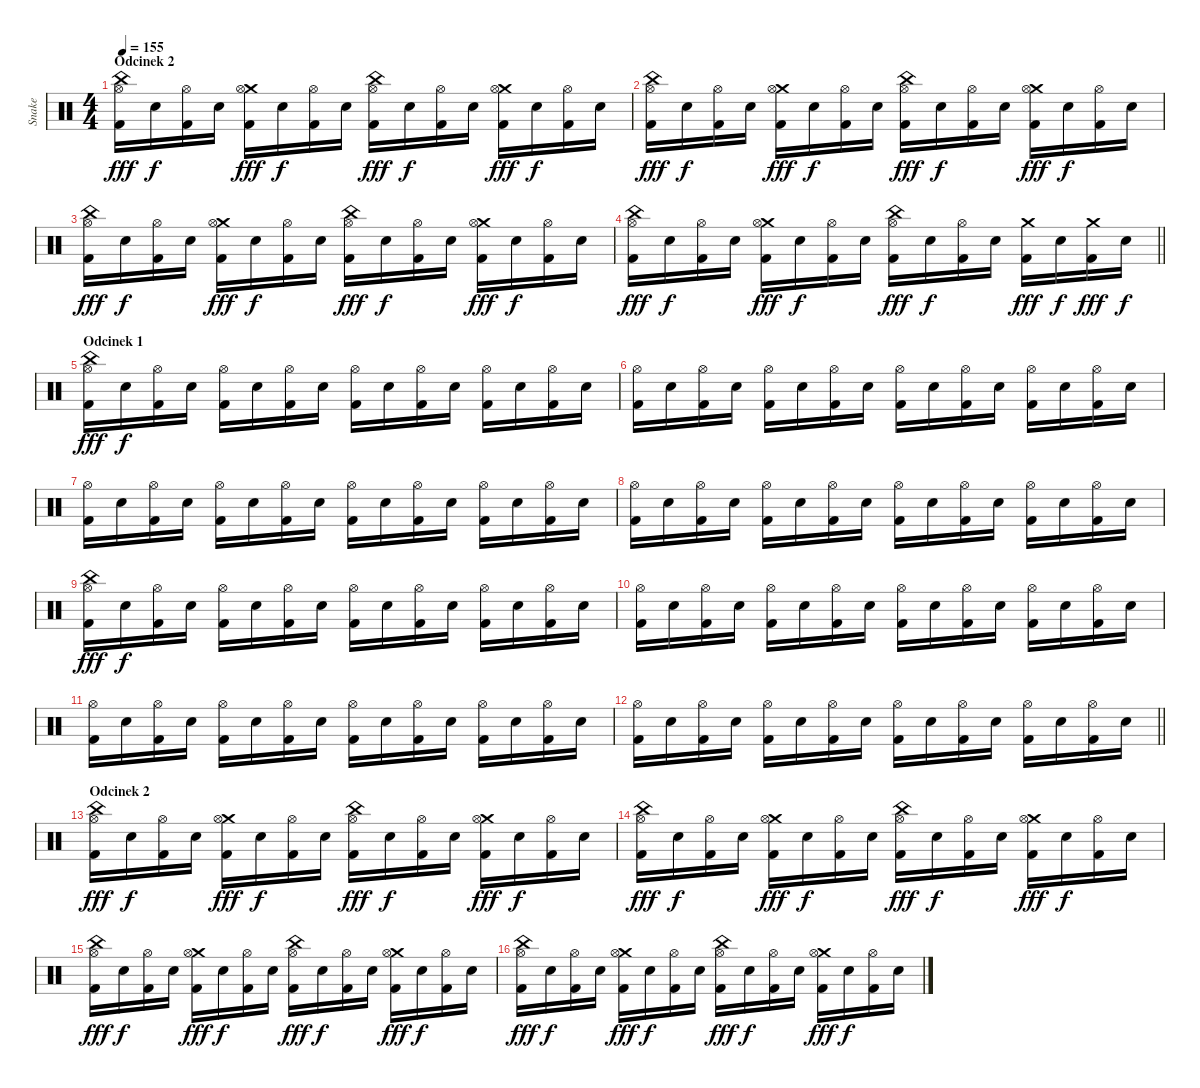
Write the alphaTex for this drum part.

\track ("Snake" "Snake") {instrument percussion}
\staff {score}
\articulation defaults
\ts (4 4)
\section ("" "Odcinek 2")
\tempo 155
\clef neutral
\ks c
("China (hit)" "Hi-Hat (open)" "Kick (hit) 2").16{dy fff} "Snare (hit) 2".16{dy f} ("Hi-Hat (open)" "Kick (hit) 2").16 "Snare (hit) 2".16 ("Crash medium (hit)" "Hi-Hat (open)" "Kick (hit) 2").16{dy fff} "Snare (hit) 2".16{dy f} ("Hi-Hat (open)" "Kick (hit) 2").16 "Snare (hit) 2".16 ("China (hit)" "Hi-Hat (open)" "Kick (hit) 2").16{dy fff} "Snare (hit) 2".16{dy f} ("Hi-Hat (open)" "Kick (hit) 2").16 "Snare (hit) 2".16 ("Crash medium (hit)" "Hi-Hat (open)" "Kick (hit) 2").16{dy fff} "Snare (hit) 2".16{dy f} ("Hi-Hat (open)" "Kick (hit) 2").16 "Snare (hit) 2".16 |
("China (hit)" "Hi-Hat (open)" "Kick (hit) 2").16{dy fff} "Snare (hit) 2".16{dy f} ("Hi-Hat (open)" "Kick (hit) 2").16 "Snare (hit) 2".16 ("Crash medium (hit)" "Hi-Hat (open)" "Kick (hit) 2").16{dy fff} "Snare (hit) 2".16{dy f} ("Hi-Hat (open)" "Kick (hit) 2").16 "Snare (hit) 2".16 ("China (hit)" "Hi-Hat (open)" "Kick (hit) 2").16{dy fff} "Snare (hit) 2".16{dy f} ("Hi-Hat (open)" "Kick (hit) 2").16 "Snare (hit) 2".16 ("Crash medium (hit)" "Hi-Hat (open)" "Kick (hit) 2").16{dy fff} "Snare (hit) 2".16{dy f} ("Hi-Hat (open)" "Kick (hit) 2").16 "Snare (hit) 2".16 |
("China (hit)" "Hi-Hat (open)" "Kick (hit) 2").16{dy fff} "Snare (hit) 2".16{dy f} ("Hi-Hat (open)" "Kick (hit) 2").16 "Snare (hit) 2".16 ("Crash medium (hit)" "Hi-Hat (open)" "Kick (hit) 2").16{dy fff} "Snare (hit) 2".16{dy f} ("Hi-Hat (open)" "Kick (hit) 2").16 "Snare (hit) 2".16 ("China (hit)" "Hi-Hat (open)" "Kick (hit) 2").16{dy fff} "Snare (hit) 2".16{dy f} ("Hi-Hat (open)" "Kick (hit) 2").16 "Snare (hit) 2".16 ("Crash medium (hit)" "Hi-Hat (open)" "Kick (hit) 2").16{dy fff} "Snare (hit) 2".16{dy f} ("Hi-Hat (open)" "Kick (hit) 2").16 "Snare (hit) 2".16 |
\barLineRight lightlight
("China (hit)" "Hi-Hat (open)" "Kick (hit) 2").16{dy fff} "Snare (hit) 2".16{dy f} ("Hi-Hat (open)" "Kick (hit) 2").16 "Snare (hit) 2".16 ("Crash medium (hit)" "Hi-Hat (open)" "Kick (hit) 2").16{dy fff} "Snare (hit) 2".16{dy f} ("Hi-Hat (open)" "Kick (hit) 2").16 "Snare (hit) 2".16 ("China (hit)" "Hi-Hat (open)" "Kick (hit) 2").16{dy fff} "Snare (hit) 2".16{dy f} ("Hi-Hat (open)" "Kick (hit) 2").16 "Snare (hit) 2".16 ("Crash medium (hit)" "Kick (hit) 2").16{dy fff} "Snare (hit) 2".16{dy f} ("Crash medium (hit)" "Kick (hit) 2").16{dy fff} "Snare (hit) 2".16{dy f} |
\section ("" "Odcinek 1")
("China (hit)" "Hi-Hat (open)" "Kick (hit) 2").16{dy fff} "Snare (hit) 2".16{dy f} ("Hi-Hat (open)" "Kick (hit) 2").16 "Snare (hit) 2".16 ("Hi-Hat (open)" "Kick (hit) 2").16 "Snare (hit) 2".16 ("Hi-Hat (open)" "Kick (hit) 2").16 "Snare (hit) 2".16 ("Hi-Hat (open)" "Kick (hit) 2").16 "Snare (hit) 2".16 ("Hi-Hat (open)" "Kick (hit) 2").16 "Snare (hit) 2".16 ("Hi-Hat (open)" "Kick (hit) 2").16 "Snare (hit) 2".16 ("Hi-Hat (open)" "Kick (hit) 2").16 "Snare (hit) 2".16 |
("Hi-Hat (open)" "Kick (hit) 2").16 "Snare (hit) 2".16 ("Hi-Hat (open)" "Kick (hit) 2").16 "Snare (hit) 2".16 ("Hi-Hat (open)" "Kick (hit) 2").16 "Snare (hit) 2".16 ("Hi-Hat (open)" "Kick (hit) 2").16 "Snare (hit) 2".16 ("Hi-Hat (open)" "Kick (hit) 2").16 "Snare (hit) 2".16 ("Hi-Hat (open)" "Kick (hit) 2").16 "Snare (hit) 2".16 ("Hi-Hat (open)" "Kick (hit) 2").16 "Snare (hit) 2".16 ("Hi-Hat (open)" "Kick (hit) 2").16 "Snare (hit) 2".16 |
("Hi-Hat (open)" "Kick (hit) 2").16 "Snare (hit) 2".16 ("Hi-Hat (open)" "Kick (hit) 2").16 "Snare (hit) 2".16 ("Hi-Hat (open)" "Kick (hit) 2").16 "Snare (hit) 2".16 ("Hi-Hat (open)" "Kick (hit) 2").16 "Snare (hit) 2".16 ("Hi-Hat (open)" "Kick (hit) 2").16 "Snare (hit) 2".16 ("Hi-Hat (open)" "Kick (hit) 2").16 "Snare (hit) 2".16 ("Hi-Hat (open)" "Kick (hit) 2").16 "Snare (hit) 2".16 ("Hi-Hat (open)" "Kick (hit) 2").16 "Snare (hit) 2".16 |
("Hi-Hat (open)" "Kick (hit) 2").16 "Snare (hit) 2".16 ("Hi-Hat (open)" "Kick (hit) 2").16 "Snare (hit) 2".16 ("Hi-Hat (open)" "Kick (hit) 2").16 "Snare (hit) 2".16 ("Hi-Hat (open)" "Kick (hit) 2").16 "Snare (hit) 2".16 ("Hi-Hat (open)" "Kick (hit) 2").16 "Snare (hit) 2".16 ("Hi-Hat (open)" "Kick (hit) 2").16 "Snare (hit) 2".16 ("Hi-Hat (open)" "Kick (hit) 2").16 "Snare (hit) 2".16 ("Hi-Hat (open)" "Kick (hit) 2").16 "Snare (hit) 2".16 |
("China (hit)" "Hi-Hat (open)" "Kick (hit) 2").16{dy fff} "Snare (hit) 2".16{dy f} ("Hi-Hat (open)" "Kick (hit) 2").16 "Snare (hit) 2".16 ("Hi-Hat (open)" "Kick (hit) 2").16 "Snare (hit) 2".16 ("Hi-Hat (open)" "Kick (hit) 2").16 "Snare (hit) 2".16 ("Hi-Hat (open)" "Kick (hit) 2").16 "Snare (hit) 2".16 ("Hi-Hat (open)" "Kick (hit) 2").16 "Snare (hit) 2".16 ("Hi-Hat (open)" "Kick (hit) 2").16 "Snare (hit) 2".16 ("Hi-Hat (open)" "Kick (hit) 2").16 "Snare (hit) 2".16 |
("Hi-Hat (open)" "Kick (hit) 2").16 "Snare (hit) 2".16 ("Hi-Hat (open)" "Kick (hit) 2").16 "Snare (hit) 2".16 ("Hi-Hat (open)" "Kick (hit) 2").16 "Snare (hit) 2".16 ("Hi-Hat (open)" "Kick (hit) 2").16 "Snare (hit) 2".16 ("Hi-Hat (open)" "Kick (hit) 2").16 "Snare (hit) 2".16 ("Hi-Hat (open)" "Kick (hit) 2").16 "Snare (hit) 2".16 ("Hi-Hat (open)" "Kick (hit) 2").16 "Snare (hit) 2".16 ("Hi-Hat (open)" "Kick (hit) 2").16 "Snare (hit) 2".16 |
("Hi-Hat (open)" "Kick (hit) 2").16 "Snare (hit) 2".16 ("Hi-Hat (open)" "Kick (hit) 2").16 "Snare (hit) 2".16 ("Hi-Hat (open)" "Kick (hit) 2").16 "Snare (hit) 2".16 ("Hi-Hat (open)" "Kick (hit) 2").16 "Snare (hit) 2".16 ("Hi-Hat (open)" "Kick (hit) 2").16 "Snare (hit) 2".16 ("Hi-Hat (open)" "Kick (hit) 2").16 "Snare (hit) 2".16 ("Hi-Hat (open)" "Kick (hit) 2").16 "Snare (hit) 2".16 ("Hi-Hat (open)" "Kick (hit) 2").16 "Snare (hit) 2".16 |
\barLineRight lightlight
("Hi-Hat (open)" "Kick (hit) 2").16 "Snare (hit) 2".16 ("Hi-Hat (open)" "Kick (hit) 2").16 "Snare (hit) 2".16 ("Hi-Hat (open)" "Kick (hit) 2").16 "Snare (hit) 2".16 ("Hi-Hat (open)" "Kick (hit) 2").16 "Snare (hit) 2".16 ("Hi-Hat (open)" "Kick (hit) 2").16 "Snare (hit) 2".16 ("Hi-Hat (open)" "Kick (hit) 2").16 "Snare (hit) 2".16 ("Hi-Hat (open)" "Kick (hit) 2").16 "Snare (hit) 2".16 ("Hi-Hat (open)" "Kick (hit) 2").16 "Snare (hit) 2".16 |
\section ("" "Odcinek 2")
("China (hit)" "Hi-Hat (open)" "Kick (hit) 2").16{dy fff} "Snare (hit) 2".16{dy f} ("Hi-Hat (open)" "Kick (hit) 2").16 "Snare (hit) 2".16 ("Crash medium (hit)" "Hi-Hat (open)" "Kick (hit) 2").16{dy fff} "Snare (hit) 2".16{dy f} ("Hi-Hat (open)" "Kick (hit) 2").16 "Snare (hit) 2".16 ("China (hit)" "Hi-Hat (open)" "Kick (hit) 2").16{dy fff} "Snare (hit) 2".16{dy f} ("Hi-Hat (open)" "Kick (hit) 2").16 "Snare (hit) 2".16 ("Crash medium (hit)" "Hi-Hat (open)" "Kick (hit) 2").16{dy fff} "Snare (hit) 2".16{dy f} ("Hi-Hat (open)" "Kick (hit) 2").16 "Snare (hit) 2".16 |
("China (hit)" "Hi-Hat (open)" "Kick (hit) 2").16{dy fff} "Snare (hit) 2".16{dy f} ("Hi-Hat (open)" "Kick (hit) 2").16 "Snare (hit) 2".16 ("Crash medium (hit)" "Hi-Hat (open)" "Kick (hit) 2").16{dy fff} "Snare (hit) 2".16{dy f} ("Hi-Hat (open)" "Kick (hit) 2").16 "Snare (hit) 2".16 ("China (hit)" "Hi-Hat (open)" "Kick (hit) 2").16{dy fff} "Snare (hit) 2".16{dy f} ("Hi-Hat (open)" "Kick (hit) 2").16 "Snare (hit) 2".16 ("Crash medium (hit)" "Hi-Hat (open)" "Kick (hit) 2").16{dy fff} "Snare (hit) 2".16{dy f} ("Hi-Hat (open)" "Kick (hit) 2").16 "Snare (hit) 2".16 |
("China (hit)" "Hi-Hat (open)" "Kick (hit) 2").16{dy fff} "Snare (hit) 2".16{dy f} ("Hi-Hat (open)" "Kick (hit) 2").16 "Snare (hit) 2".16 ("Crash medium (hit)" "Hi-Hat (open)" "Kick (hit) 2").16{dy fff} "Snare (hit) 2".16{dy f} ("Hi-Hat (open)" "Kick (hit) 2").16 "Snare (hit) 2".16 ("China (hit)" "Hi-Hat (open)" "Kick (hit) 2").16{dy fff} "Snare (hit) 2".16{dy f} ("Hi-Hat (open)" "Kick (hit) 2").16 "Snare (hit) 2".16 ("Crash medium (hit)" "Hi-Hat (open)" "Kick (hit) 2").16{dy fff} "Snare (hit) 2".16{dy f} ("Hi-Hat (open)" "Kick (hit) 2").16 "Snare (hit) 2".16 |
("China (hit)" "Hi-Hat (open)" "Kick (hit) 2").16{dy fff} "Snare (hit) 2".16{dy f} ("Hi-Hat (open)" "Kick (hit) 2").16 "Snare (hit) 2".16 ("Crash medium (hit)" "Hi-Hat (open)" "Kick (hit) 2").16{dy fff} "Snare (hit) 2".16{dy f} ("Hi-Hat (open)" "Kick (hit) 2").16 "Snare (hit) 2".16 ("China (hit)" "Hi-Hat (open)" "Kick (hit) 2").16{dy fff} "Snare (hit) 2".16{dy f} ("Hi-Hat (open)" "Kick (hit) 2").16 "Snare (hit) 2".16 ("Crash medium (hit)" "Hi-Hat (open)" "Kick (hit) 2").16{dy fff} "Snare (hit) 2".16{dy f} ("Hi-Hat (open)" "Kick (hit) 2").16 "Snare (hit) 2".16
